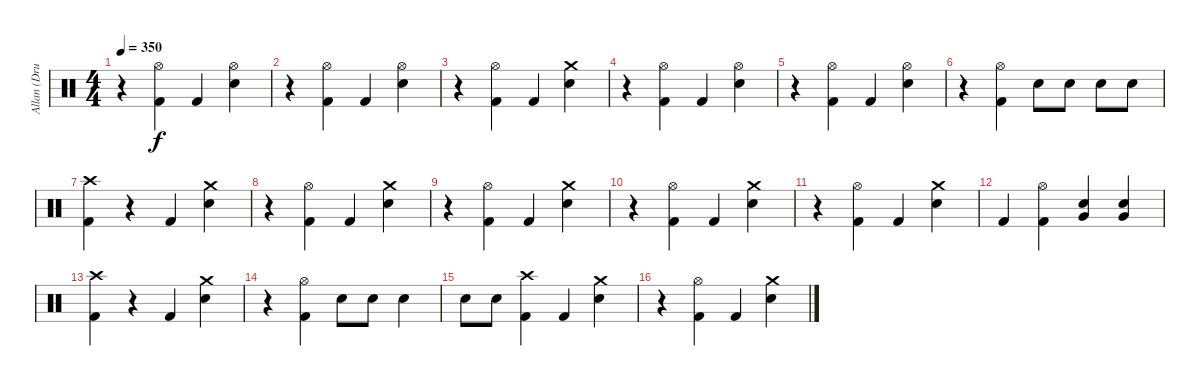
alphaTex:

\track ("Allan (Drums)" "Allan (Dru") {solo instrument percussion}
\staff {score}
\articulation defaults
\ts (4 4)
\tempo 350
\clef neutral
\ks c
r.4{dy f} ("Hi-Hat (open)" "Kick (hit) 2").4 "Kick (hit) 2".4 ("Hi-Hat (open)" "Snare (hit) 2").4 |
r.4 ("Hi-Hat (open)" "Kick (hit) 2").4 "Kick (hit) 2".4 ("Hi-Hat (open)" "Snare (hit) 2").4 |
r.4 ("Hi-Hat (open)" "Kick (hit) 2").4 "Kick (hit) 2".4 ("Crash medium (hit)" "Snare (hit) 2").4 |
r.4 ("Hi-Hat (open)" "Kick (hit) 2").4 "Kick (hit) 2".4 ("Hi-Hat (open)" "Snare (hit) 2").4 |
r.4 ("Hi-Hat (open)" "Kick (hit) 2").4 "Kick (hit) 2".4 ("Hi-Hat (open)" "Snare (hit) 2").4 |
r.4 ("Hi-Hat (open)" "Kick (hit) 2").4 "Snare (hit) 2".8 "Snare (hit) 2".8 "Snare (hit) 2".8 "Snare (hit) 2".8 |
("Crash high (hit)" "Kick (hit) 2").4 r.4 "Kick (hit) 2".4 ("Crash medium (hit)" "Snare (hit) 2").4 |
r.4 ("Hi-Hat (open)" "Kick (hit) 2").4 "Kick (hit) 2".4 ("Crash medium (hit)" "Snare (hit) 2").4 |
r.4 ("Hi-Hat (open)" "Kick (hit) 2").4 "Kick (hit) 2".4 ("Crash medium (hit)" "Snare (hit) 2").4 |
r.4 ("Hi-Hat (open)" "Kick (hit) 2").4 "Kick (hit) 2".4 ("Crash medium (hit)" "Snare (hit) 2").4 |
r.4 ("Hi-Hat (open)" "Kick (hit) 2").4 "Kick (hit) 2".4 ("Crash medium (hit)" "Snare (hit) 2").4 |
"Kick (hit) 2".4 ("Hi-Hat (open)" "Kick (hit) 2").4 ("Very Low Tom (hit)" "Snare (hit) 2").4 ("Very Low Tom (hit)" "Snare (hit) 2").4 |
("Crash high (hit)" "Kick (hit) 2").4 r.4 "Kick (hit) 2".4 ("Crash medium (hit)" "Snare (hit) 2").4 |
r.4 ("Hi-Hat (open)" "Kick (hit) 2").4 "Snare (hit) 2".8 "Snare (hit) 2".8 "Snare (hit) 2".4 |
"Snare (hit) 2".8 "Snare (hit) 2".8 ("Crash high (hit)" "Kick (hit) 2").4 "Kick (hit) 2".4 ("Crash medium (hit)" "Snare (hit) 2").4 |
r.4 ("Hi-Hat (open)" "Kick (hit) 2").4 "Kick (hit) 2".4 ("Crash medium (hit)" "Snare (hit) 2").4
